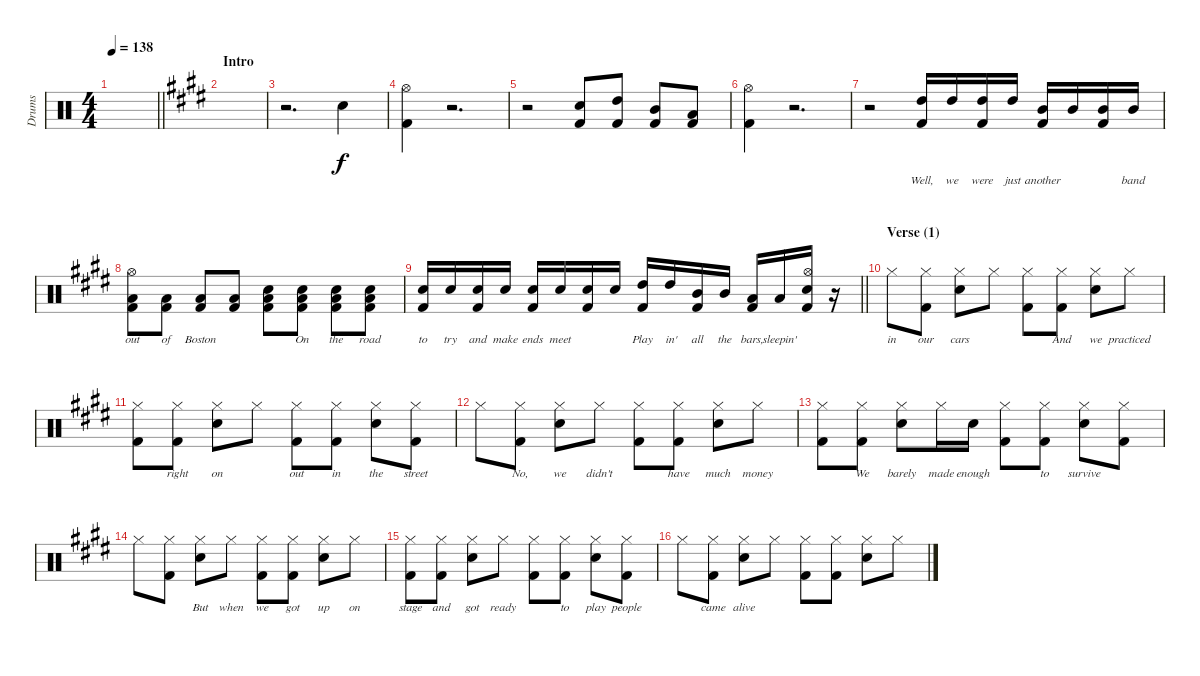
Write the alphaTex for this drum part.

\track ("Drums" "Drums") {instrument percussion}
\staff {score}
\articulation defaults
\ts (4 4)
\tempo 138
\clef neutral
\barLineRight lightlight
\ks c
|
\section ("" "Intro")
\ks e
|
r.2{d} "Snare (hit) 2".4 |
("Hi-Hat (open)" "Kick (hit) 2").4 r.2{d} |
r.2 ("Snare (hit) 2" "Kick (hit) 2").8 ("High Tom (hit)" "Kick (hit) 2").8 ("Mid Tom (hit)" "Kick (hit) 2").8 ("Low Floor Tom (hit)" "Kick (hit) 2").8 |
("Hi-Hat (open)" "Kick (hit) 2").4 r.2{d} |
r.2 ("High Tom (hit)" "Kick (hit) 2").16{lyrics (0 "Well,") lyrics (1 "") lyrics (2 "") lyrics (3 "") lyrics (4 "")} "High Tom (hit)".16{lyrics (0 "we") lyrics (1 "") lyrics (2 "") lyrics (3 "") lyrics (4 "")} ("High Tom (hit)" "Kick (hit) 2").16{lyrics (0 "were") lyrics (1 "") lyrics (2 "") lyrics (3 "") lyrics (4 "")} "High Tom (hit)".16{lyrics (0 "just") lyrics (1 "") lyrics (2 "") lyrics (3 "") lyrics (4 "")} ("Mid Tom (hit)" "Kick (hit) 2").16{lyrics (0 "another") lyrics (1 "") lyrics (2 "") lyrics (3 "") lyrics (4 "")} "Mid Tom (hit)".16{lyrics (0 "") lyrics (1 "") lyrics (2 "") lyrics (3 "") lyrics (4 "")} ("Mid Tom (hit)" "Kick (hit) 2").16{lyrics (0 " ") lyrics (1 "") lyrics (2 "") lyrics (3 "") lyrics (4 "")} "Mid Tom (hit)".16{lyrics (0 "band") lyrics (1 "") lyrics (2 "") lyrics (3 "") lyrics (4 "")} |
("Hi-Hat (open)" "Low Floor Tom (hit)" "Kick (hit) 2").8{lyrics (0 "out") lyrics (1 "") lyrics (2 "") lyrics (3 "") lyrics (4 "")} ("Low Floor Tom (hit)" "Kick (hit) 2").8{lyrics (0 "of") lyrics (1 "") lyrics (2 "") lyrics (3 "") lyrics (4 "")} ("Low Floor Tom (hit)" "Kick (hit) 2").8{lyrics (0 "Boston") lyrics (1 "") lyrics (2 "") lyrics (3 "") lyrics (4 "")} ("Low Floor Tom (hit)" "Kick (hit) 2").8{lyrics (0 " ") lyrics (1 "") lyrics (2 "") lyrics (3 "") lyrics (4 "")} ("Low Floor Tom (hit)" "Kick (hit) 2" "Snare (hit) 2").8{lyrics (0 "") lyrics (1 "") lyrics (2 "") lyrics (3 "") lyrics (4 "")} ("Low Floor Tom (hit)" "Kick (hit) 2" "Snare (hit) 2").8{lyrics (0 "On") lyrics (1 "") lyrics (2 "") lyrics (3 "") lyrics (4 "")} ("Low Floor Tom (hit)" "Kick (hit) 2" "Snare (hit) 2").8{lyrics (0 "the") lyrics (1 "") lyrics (2 "") lyrics (3 "") lyrics (4 "")} ("Low Floor Tom (hit)" "Kick (hit) 2" "Snare (hit) 2").8{lyrics (0 "road") lyrics (1 "") lyrics (2 "") lyrics (3 "") lyrics (4 "")} |
\barLineRight lightlight
("Kick (hit) 2" "Snare (hit) 2").16{lyrics (0 "to") lyrics (1 "") lyrics (2 "") lyrics (3 "") lyrics (4 "")} "Snare (hit) 2".16{lyrics (0 "try") lyrics (1 "") lyrics (2 "") lyrics (3 "") lyrics (4 "")} ("Kick (hit) 2" "Snare (hit) 2").16{lyrics (0 "and") lyrics (1 "") lyrics (2 "") lyrics (3 "") lyrics (4 "")} "Snare (hit) 2".16{lyrics (0 "make") lyrics (1 "") lyrics (2 "") lyrics (3 "") lyrics (4 "")} ("Kick (hit) 2" "Snare (hit) 2").16{lyrics (0 "ends") lyrics (1 "") lyrics (2 "") lyrics (3 "") lyrics (4 "")} "Snare (hit) 2".16{lyrics (0 "meet") lyrics (1 "") lyrics (2 "") lyrics (3 "") lyrics (4 "")} ("Kick (hit) 2" "Snare (hit) 2").16{lyrics (0 "") lyrics (1 "") lyrics (2 "") lyrics (3 "") lyrics (4 "")} "Snare (hit) 2".16{lyrics (0 "") lyrics (1 "") lyrics (2 "") lyrics (3 "") lyrics (4 "")} ("Kick (hit) 2" "High Tom (hit)").16{lyrics (0 "Play") lyrics (1 "") lyrics (2 "") lyrics (3 "") lyrics (4 "")} "High Tom (hit)".16{lyrics (0 " in'") lyrics (1 "") lyrics (2 "") lyrics (3 "") lyrics (4 "")} ("Kick (hit) 2" "Mid Tom (hit)").16{lyrics (0 "all") lyrics (1 "") lyrics (2 "") lyrics (3 "") lyrics (4 "")} "Mid Tom (hit)".16{lyrics (0 "the") lyrics (1 "") lyrics (2 "") lyrics (3 "") lyrics (4 "")} ("Kick (hit) 2" "Low Tom (hit)").16{lyrics (0 "bars,") lyrics (1 "") lyrics (2 "") lyrics (3 "") lyrics (4 "")} "Low Tom (hit)".16{lyrics (0 "sleepin'") lyrics (1 "") lyrics (2 "") lyrics (3 "") lyrics (4 "")} ("Hi-Hat (open)" "Kick (hit) 2" "Snare (hit) 2").16{lyrics (0 " ") lyrics (1 "") lyrics (2 "") lyrics (3 "") lyrics (4 "")} r.16 |
\section ("" "Verse (1)")
"Hi-Hat (closed)".8{lyrics (0 "in") lyrics (1 "") lyrics (2 "") lyrics (3 "") lyrics (4 "")} ("Kick (hit) 2" "Hi-Hat (closed)").8{lyrics (0 "our") lyrics (1 "") lyrics (2 "") lyrics (3 "") lyrics (4 "")} ("Snare (hit) 2" "Hi-Hat (closed)").8{lyrics (0 "cars") lyrics (1 "") lyrics (2 "") lyrics (3 "") lyrics (4 "")} "Hi-Hat (closed)".8{lyrics (0 "") lyrics (1 "") lyrics (2 "") lyrics (3 "") lyrics (4 "")} ("Kick (hit) 2" "Hi-Hat (closed)").8{lyrics (0 "") lyrics (1 "") lyrics (2 "") lyrics (3 "") lyrics (4 "")} ("Kick (hit) 2" "Hi-Hat (closed)").8{lyrics (0 "And") lyrics (1 "") lyrics (2 "") lyrics (3 "") lyrics (4 "")} ("Snare (hit) 2" "Hi-Hat (closed)").8{lyrics (0 "we") lyrics (1 "") lyrics (2 "") lyrics (3 "") lyrics (4 "")} "Hi-Hat (closed)".8{lyrics (0 "practiced") lyrics (1 "") lyrics (2 "") lyrics (3 "") lyrics (4 "")} |
("Kick (hit) 2" "Hi-Hat (closed)").8{lyrics (0 "") lyrics (1 "") lyrics (2 "") lyrics (3 "") lyrics (4 "")} ("Kick (hit) 2" "Hi-Hat (closed)").8{lyrics (0 "right") lyrics (1 "") lyrics (2 "") lyrics (3 "") lyrics (4 "")} ("Snare (hit) 2" "Hi-Hat (closed)").8{lyrics (0 "on") lyrics (1 "") lyrics (2 "") lyrics (3 "") lyrics (4 "")} "Hi-Hat (closed)".8{lyrics (0 " ") lyrics (1 "") lyrics (2 "") lyrics (3 "") lyrics (4 "")} ("Kick (hit) 2" "Hi-Hat (closed)").8{lyrics (0 "out") lyrics (1 "") lyrics (2 "") lyrics (3 "") lyrics (4 "")} ("Kick (hit) 2" "Hi-Hat (closed)").8{lyrics (0 "in") lyrics (1 "") lyrics (2 "") lyrics (3 "") lyrics (4 "")} ("Snare (hit) 2" "Hi-Hat (closed)").8{lyrics (0 "the") lyrics (1 "") lyrics (2 "") lyrics (3 "") lyrics (4 "")} ("Kick (hit) 2" "Hi-Hat (closed)").8{lyrics (0 "street") lyrics (1 "") lyrics (2 "") lyrics (3 "") lyrics (4 "")} |
"Hi-Hat (closed)".8{lyrics (0 "") lyrics (1 "") lyrics (2 "") lyrics (3 "") lyrics (4 "")} ("Kick (hit) 2" "Hi-Hat (closed)").8{lyrics (0 "No,") lyrics (1 "") lyrics (2 "") lyrics (3 "") lyrics (4 "")} ("Snare (hit) 2" "Hi-Hat (closed)").8{lyrics (0 "we") lyrics (1 "") lyrics (2 "") lyrics (3 "") lyrics (4 "")} "Hi-Hat (closed)".8{lyrics (0 "didn't") lyrics (1 "") lyrics (2 "") lyrics (3 "") lyrics (4 "")} ("Kick (hit) 2" "Hi-Hat (closed)").8{lyrics (0 "") lyrics (1 "") lyrics (2 "") lyrics (3 "") lyrics (4 "")} ("Kick (hit) 2" "Hi-Hat (closed)").8{lyrics (0 "have") lyrics (1 "") lyrics (2 "") lyrics (3 "") lyrics (4 "")} ("Snare (hit) 2" "Hi-Hat (closed)").8{lyrics (0 "much") lyrics (1 "") lyrics (2 "") lyrics (3 "") lyrics (4 "")} "Hi-Hat (closed)".8{lyrics (0 "money") lyrics (1 "") lyrics (2 "") lyrics (3 "") lyrics (4 "")} |
("Kick (hit) 2" "Hi-Hat (closed)").8{lyrics (0 "") lyrics (1 "") lyrics (2 "") lyrics (3 "") lyrics (4 "")} ("Kick (hit) 2" "Hi-Hat (closed)").8{lyrics (0 "We") lyrics (1 "") lyrics (2 "") lyrics (3 "") lyrics (4 "")} ("Snare (hit) 2" "Hi-Hat (closed)").8{lyrics (0 "barely") lyrics (1 "") lyrics (2 "") lyrics (3 "") lyrics (4 "")} "Hi-Hat (closed)".16{lyrics (0 "made") lyrics (1 "") lyrics (2 "") lyrics (3 "") lyrics (4 "")} "Snare (hit) 2".16{lyrics (0 "enough") lyrics (1 "") lyrics (2 "") lyrics (3 "") lyrics (4 "")} ("Kick (hit) 2" "Hi-Hat (closed)").8{lyrics (0 "") lyrics (1 "") lyrics (2 "") lyrics (3 "") lyrics (4 "")} ("Kick (hit) 2" "Hi-Hat (closed)").8{lyrics (0 "to") lyrics (1 "") lyrics (2 "") lyrics (3 "") lyrics (4 "")} ("Snare (hit) 2" "Hi-Hat (closed)").8{lyrics (0 "survive") lyrics (1 "") lyrics (2 "") lyrics (3 "") lyrics (4 "")} ("Kick (hit) 2" "Hi-Hat (closed)").8{lyrics (0 "") lyrics (1 "") lyrics (2 "") lyrics (3 "") lyrics (4 "")} |
"Hi-Hat (closed)".8{lyrics (0 "") lyrics (1 "") lyrics (2 "") lyrics (3 "") lyrics (4 "")} ("Kick (hit) 2" "Hi-Hat (closed)").8{lyrics (0 "") lyrics (1 "") lyrics (2 "") lyrics (3 "") lyrics (4 "")} ("Snare (hit) 2" "Hi-Hat (closed)").8{lyrics (0 "But") lyrics (1 "") lyrics (2 "") lyrics (3 "") lyrics (4 "")} "Hi-Hat (closed)".8{lyrics (0 "when") lyrics (1 "") lyrics (2 "") lyrics (3 "") lyrics (4 "")} ("Kick (hit) 2" "Hi-Hat (closed)").8{lyrics (0 "we") lyrics (1 "") lyrics (2 "") lyrics (3 "") lyrics (4 "")} ("Kick (hit) 2" "Hi-Hat (closed)").8{lyrics (0 "got") lyrics (1 "") lyrics (2 "") lyrics (3 "") lyrics (4 "")} ("Snare (hit) 2" "Hi-Hat (closed)").8{lyrics (0 "up") lyrics (1 "") lyrics (2 "") lyrics (3 "") lyrics (4 "")} "Hi-Hat (closed)".8{lyrics (0 "on") lyrics (1 "") lyrics (2 "") lyrics (3 "") lyrics (4 "")} |
("Kick (hit) 2" "Hi-Hat (closed)").8{lyrics (0 "stage") lyrics (1 "") lyrics (2 "") lyrics (3 "") lyrics (4 "")} ("Kick (hit) 2" "Hi-Hat (closed)").8{lyrics (0 "and") lyrics (1 "") lyrics (2 "") lyrics (3 "") lyrics (4 "")} ("Snare (hit) 2" "Hi-Hat (closed)").8{lyrics (0 "got") lyrics (1 "") lyrics (2 "") lyrics (3 "") lyrics (4 "")} "Hi-Hat (closed)".8{lyrics (0 "ready") lyrics (1 "") lyrics (2 "") lyrics (3 "") lyrics (4 "")} ("Kick (hit) 2" "Hi-Hat (closed)").8{lyrics (0 "") lyrics (1 "") lyrics (2 "") lyrics (3 "") lyrics (4 "")} ("Kick (hit) 2" "Hi-Hat (closed)").8{lyrics (0 "to") lyrics (1 "") lyrics (2 "") lyrics (3 "") lyrics (4 "")} ("Snare (hit) 2" "Hi-Hat (closed)").8{lyrics (0 "play") lyrics (1 "") lyrics (2 "") lyrics (3 "") lyrics (4 "")} ("Kick (hit) 2" "Hi-Hat (closed)").8{lyrics (0 "people") lyrics (1 "") lyrics (2 "") lyrics (3 "") lyrics (4 "")} |
"Hi-Hat (closed)".8{lyrics (0 "") lyrics (1 "") lyrics (2 "") lyrics (3 "") lyrics (4 "")} ("Kick (hit) 2" "Hi-Hat (closed)").8{lyrics (0 "came") lyrics (1 "") lyrics (2 "") lyrics (3 "") lyrics (4 "")} ("Snare (hit) 2" "Hi-Hat (closed)").8{lyrics (0 "alive") lyrics (1 "") lyrics (2 "") lyrics (3 "") lyrics (4 "")} "Hi-Hat (closed)".8{lyrics (0 "") lyrics (1 "") lyrics (2 "") lyrics (3 "") lyrics (4 "")} ("Kick (hit) 2" "Hi-Hat (closed)").8{lyrics (0 "") lyrics (1 "") lyrics (2 "") lyrics (3 "") lyrics (4 "")} ("Kick (hit) 2" "Hi-Hat (closed)").8{lyrics (0 "") lyrics (1 "") lyrics (2 "") lyrics (3 "") lyrics (4 "")} ("Snare (hit) 2" "Hi-Hat (closed)").8{lyrics (0 "") lyrics (1 "") lyrics (2 "") lyrics (3 "") lyrics (4 "")} "Hi-Hat (closed)".8{lyrics (0 "") lyrics (1 "") lyrics (2 "") lyrics (3 "") lyrics (4 "")}
